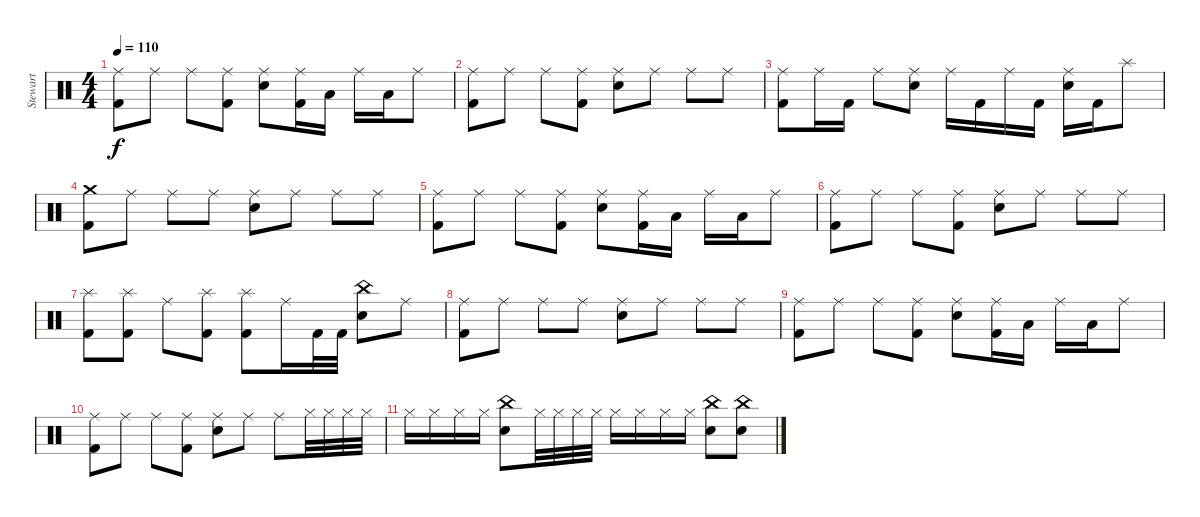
\track ("Stewart" "Stewart") {instrument percussion}
\staff {score}
\articulation defaults
\ts (4 4)
\tempo 110
\clef neutral
\ks c
("Ride (middle)" "Kick (hit) 2").8{dy f} "Ride (middle)".8 "Ride (middle)".8 ("Ride (middle)" "Kick (hit) 2").8 ("Ride (middle)" "Electric Snare (hit)").8 ("Ride (middle)" "Kick (hit) 2").16 "Low Tom (hit)".16 "Ride (middle)".16 "Low Tom (hit)".16 "Ride (middle)".8 |
("Ride (middle)" "Kick (hit) 2").8 "Ride (middle)".8 "Ride (middle)".8 ("Ride (middle)" "Kick (hit) 2").8 ("Ride (middle)" "Electric Snare (hit)").8 "Ride (middle)".8 "Ride (middle)".8 "Ride (middle)".8 |
("Ride (middle)" "Kick (hit) 2").8 "Ride (middle)".16 "Kick (hit) 2".16 "Ride (middle)".8 ("Ride (middle)" "Electric Snare (hit)").8 "Ride (middle)".16 "Kick (hit) 2".16 "Ride (middle)".16 "Kick (hit) 2".16 ("Ride (middle)" "Electric Snare (hit)").16 "Kick (hit) 2".16 "Splash (hit)".8 |
("Crash medium (hit)" "Kick (hit) 2").8 "Ride (middle)".8 "Ride (middle)".8 "Ride (middle)".8 ("Ride (middle)" "Electric Snare (hit)").8 "Ride (middle)".8 "Ride (middle)".8 "Ride (middle)".8 |
("Ride (middle)" "Kick (hit) 2").8 "Ride (middle)".8 "Ride (middle)".8 ("Ride (middle)" "Kick (hit) 2").8 ("Ride (middle)" "Electric Snare (hit)").8 ("Ride (middle)" "Kick (hit) 2").16 "Low Tom (hit)".16 "Ride (middle)".16 "Low Tom (hit)".16 "Ride (middle)".8 |
("Ride (middle)" "Kick (hit) 2").8 "Ride (middle)".8 "Ride (middle)".8 ("Ride (middle)" "Kick (hit) 2").8 ("Ride (middle)" "Electric Snare (hit)").8 "Ride (middle)".8 "Ride (middle)".8 "Ride (middle)".8 |
("Splash (hit)" "Kick (hit) 2").8 ("Splash (hit)" "Kick (hit) 2").8 "Ride (middle)".8 ("Splash (hit)" "Kick (hit) 2").8 ("Splash (hit)" "Kick (hit) 2").8 "Ride (middle)".16 "Kick (hit) 2".32 "Kick (hit) 2".32 ("China (hit)" "Electric Snare (hit)").8 "Ride (middle)".8 |
("Ride (middle)" "Kick (hit) 2").8 "Ride (middle)".8 "Ride (middle)".8 "Ride (middle)".8 ("Ride (middle)" "Electric Snare (hit)").8 "Ride (middle)".8 "Ride (middle)".8 "Ride (middle)".8 |
("Ride (middle)" "Kick (hit) 2").8 "Ride (middle)".8 "Ride (middle)".8 ("Ride (middle)" "Kick (hit) 2").8 ("Ride (middle)" "Electric Snare (hit)").8 ("Ride (middle)" "Kick (hit) 2").16 "Low Tom (hit)".16 "Ride (middle)".16 "Low Tom (hit)".16 "Ride (middle)".8 |
("Ride (middle)" "Kick (hit) 2").8 "Ride (middle)".8 "Ride (middle)".8 ("Ride (middle)" "Kick (hit) 2").8 ("Ride (middle)" "Electric Snare (hit)").8 "Ride (middle)".8 "Ride (middle)".8 "Hi-Hat (closed)".32 "Hi-Hat (closed)".32 "Hi-Hat (closed)".32 "Hi-Hat (closed)".32 |
"Hi-Hat (closed)".16 "Hi-Hat (closed)".16 "Hi-Hat (closed)".16 "Hi-Hat (closed)".16 ("China (hit)" "Electric Snare (hit)").8 "Hi-Hat (closed)".32 "Hi-Hat (closed)".32 "Hi-Hat (closed)".32 "Hi-Hat (closed)".32 "Hi-Hat (closed)".16 "Hi-Hat (closed)".16 "Hi-Hat (closed)".16 "Hi-Hat (closed)".16 ("China (hit)" "Electric Snare (hit)").8 ("China (hit)" "Electric Snare (hit)").8
